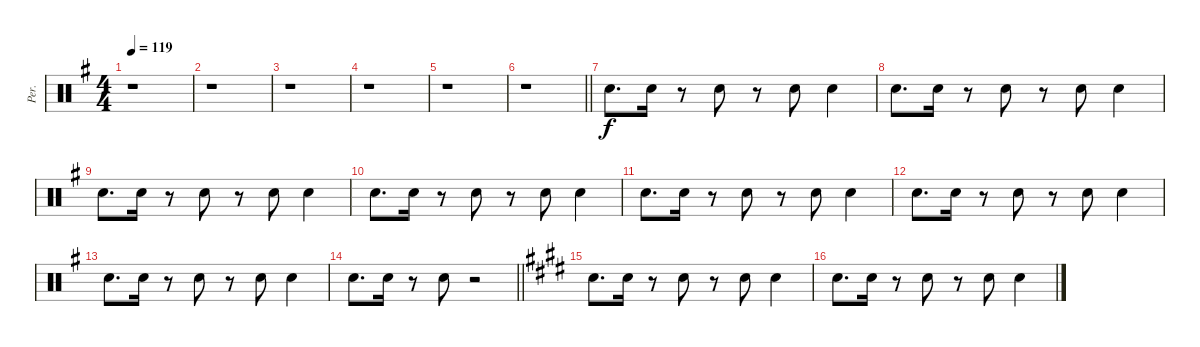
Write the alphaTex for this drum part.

\track ("Per." "Per.") {instrument percussion}
\staff {score}
\articulation defaults
\ts (4 4)
\tempo 119
\clef neutral
\ks eminor
r.1{dy f} |
r.1 |
r.1 |
r.1 |
r.1 |
\barLineRight lightlight
r.1 |
"Hand Clap (hit)".8{d} "Hand Clap (hit)".16 r.8 "Hand Clap (hit)".8 r.8 "Hand Clap (hit)".8 "Hand Clap (hit)".4 |
"Hand Clap (hit)".8{d} "Hand Clap (hit)".16 r.8 "Hand Clap (hit)".8 r.8 "Hand Clap (hit)".8 "Hand Clap (hit)".4 |
"Hand Clap (hit)".8{d} "Hand Clap (hit)".16 r.8 "Hand Clap (hit)".8 r.8 "Hand Clap (hit)".8 "Hand Clap (hit)".4 |
"Hand Clap (hit)".8{d} "Hand Clap (hit)".16 r.8 "Hand Clap (hit)".8 r.8 "Hand Clap (hit)".8 "Hand Clap (hit)".4 |
"Hand Clap (hit)".8{d} "Hand Clap (hit)".16 r.8 "Hand Clap (hit)".8 r.8 "Hand Clap (hit)".8 "Hand Clap (hit)".4 |
"Hand Clap (hit)".8{d} "Hand Clap (hit)".16 r.8 "Hand Clap (hit)".8 r.8 "Hand Clap (hit)".8 "Hand Clap (hit)".4 |
"Hand Clap (hit)".8{d} "Hand Clap (hit)".16 r.8 "Hand Clap (hit)".8 r.8 "Hand Clap (hit)".8 "Hand Clap (hit)".4 |
\barLineRight lightlight "Hand Clap (hit)".8{d} "Hand Clap (hit)".16
r.8 "Hand Clap (hit)".8 r.2 |
\ks c#minor "Hand Clap (hit)".8{d} "Hand Clap (hit)".16
r.8 "Hand Clap (hit)".8 r.8 "Hand Clap (hit)".8 "Hand Clap (hit)".4 |
"Hand Clap (hit)".8{d} "Hand Clap (hit)".16 r.8 "Hand Clap (hit)".8 r.8 "Hand Clap (hit)".8 "Hand Clap (hit)".4
